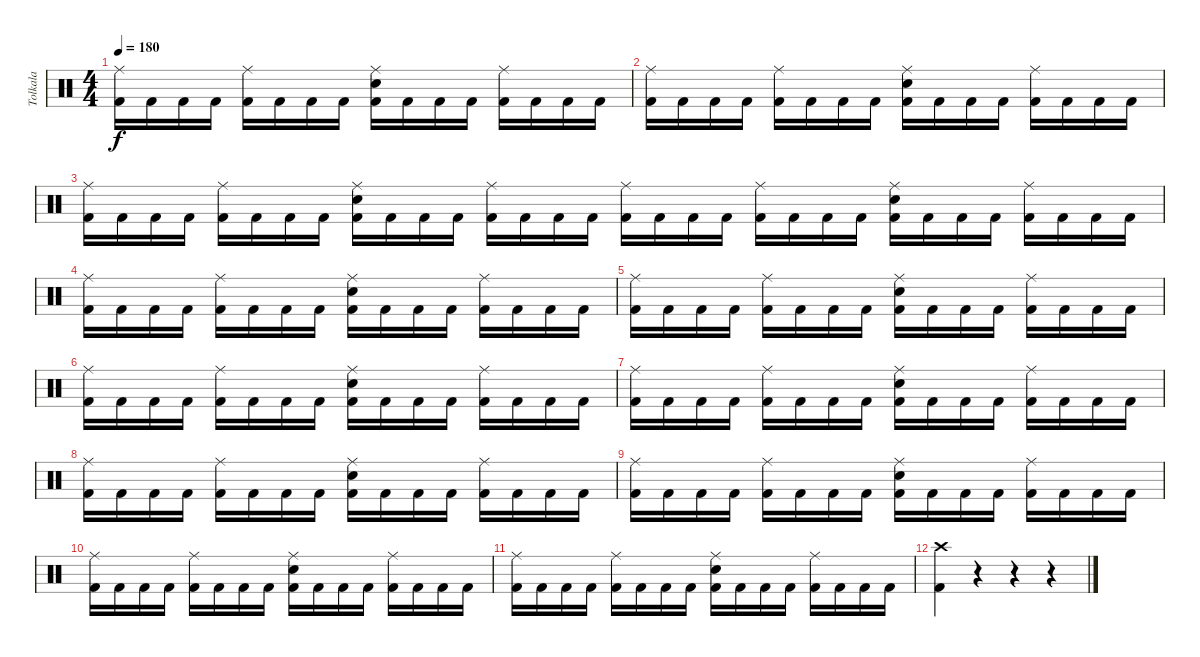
\track ("Tolkala" "Tolkala") {instrument percussion}
\staff {score}
\articulation defaults
\ts (4 4)
\tempo 180
\clef neutral
\ks c
("Ride (middle)" "Kick (hit) 2").16{dy f} "Kick (hit) 2".16 "Kick (hit) 2".16 "Kick (hit) 2".16 ("Ride (middle)" "Kick (hit) 2").16 "Kick (hit) 2".16 "Kick (hit) 2".16 "Kick (hit) 2".16 ("Ride (middle)" "Electric Snare (hit)" "Kick (hit) 2").16 "Kick (hit) 2".16 "Kick (hit) 2".16 "Kick (hit) 2".16 ("Ride (middle)" "Kick (hit) 2").16 "Kick (hit) 2".16 "Kick (hit) 2".16 "Kick (hit) 2".16 |
("Ride (middle)" "Kick (hit) 2").16 "Kick (hit) 2".16 "Kick (hit) 2".16 "Kick (hit) 2".16 ("Ride (middle)" "Kick (hit) 2").16 "Kick (hit) 2".16 "Kick (hit) 2".16 "Kick (hit) 2".16 ("Ride (middle)" "Electric Snare (hit)" "Kick (hit) 2").16 "Kick (hit) 2".16 "Kick (hit) 2".16 "Kick (hit) 2".16 ("Ride (middle)" "Kick (hit) 2").16 "Kick (hit) 2".16 "Kick (hit) 2".16 "Kick (hit) 2".16 |
("Ride (middle)" "Kick (hit) 2").16 "Kick (hit) 2".16 "Kick (hit) 2".16 "Kick (hit) 2".16 ("Ride (middle)" "Kick (hit) 2").16 "Kick (hit) 2".16 "Kick (hit) 2".16 "Kick (hit) 2".16 ("Ride (middle)" "Electric Snare (hit)" "Kick (hit) 2").16 "Kick (hit) 2".16 "Kick (hit) 2".16 "Kick (hit) 2".16 ("Ride (middle)" "Kick (hit) 2").16 "Kick (hit) 2".16 "Kick (hit) 2".16 "Kick (hit) 2".16 ("Ride (middle)" "Kick (hit) 2").16 "Kick (hit) 2".16 "Kick (hit) 2".16 "Kick (hit) 2".16 ("Ride (middle)" "Kick (hit) 2").16 "Kick (hit) 2".16 "Kick (hit) 2".16 "Kick (hit) 2".16 ("Ride (middle)" "Electric Snare (hit)" "Kick (hit) 2").16 "Kick (hit) 2".16 "Kick (hit) 2".16 "Kick (hit) 2".16 ("Ride (middle)" "Kick (hit) 2").16 "Kick (hit) 2".16 "Kick (hit) 2".16 "Kick (hit) 2".16 |
("Ride (middle)" "Kick (hit) 2").16 "Kick (hit) 2".16 "Kick (hit) 2".16 "Kick (hit) 2".16 ("Ride (middle)" "Kick (hit) 2").16 "Kick (hit) 2".16 "Kick (hit) 2".16 "Kick (hit) 2".16 ("Ride (middle)" "Electric Snare (hit)" "Kick (hit) 2").16 "Kick (hit) 2".16 "Kick (hit) 2".16 "Kick (hit) 2".16 ("Ride (middle)" "Kick (hit) 2").16 "Kick (hit) 2".16 "Kick (hit) 2".16 "Kick (hit) 2".16 |
("Ride (middle)" "Kick (hit) 2").16 "Kick (hit) 2".16 "Kick (hit) 2".16 "Kick (hit) 2".16 ("Ride (middle)" "Kick (hit) 2").16 "Kick (hit) 2".16 "Kick (hit) 2".16 "Kick (hit) 2".16 ("Ride (middle)" "Electric Snare (hit)" "Kick (hit) 2").16 "Kick (hit) 2".16 "Kick (hit) 2".16 "Kick (hit) 2".16 ("Ride (middle)" "Kick (hit) 2").16 "Kick (hit) 2".16 "Kick (hit) 2".16 "Kick (hit) 2".16 |
("Ride (middle)" "Kick (hit) 2").16 "Kick (hit) 2".16 "Kick (hit) 2".16 "Kick (hit) 2".16 ("Ride (middle)" "Kick (hit) 2").16 "Kick (hit) 2".16 "Kick (hit) 2".16 "Kick (hit) 2".16 ("Ride (middle)" "Electric Snare (hit)" "Kick (hit) 2").16 "Kick (hit) 2".16 "Kick (hit) 2".16 "Kick (hit) 2".16 ("Ride (middle)" "Kick (hit) 2").16 "Kick (hit) 2".16 "Kick (hit) 2".16 "Kick (hit) 2".16 |
("Ride (middle)" "Kick (hit) 2").16 "Kick (hit) 2".16 "Kick (hit) 2".16 "Kick (hit) 2".16 ("Ride (middle)" "Kick (hit) 2").16 "Kick (hit) 2".16 "Kick (hit) 2".16 "Kick (hit) 2".16 ("Ride (middle)" "Electric Snare (hit)" "Kick (hit) 2").16 "Kick (hit) 2".16 "Kick (hit) 2".16 "Kick (hit) 2".16 ("Ride (middle)" "Kick (hit) 2").16 "Kick (hit) 2".16 "Kick (hit) 2".16 "Kick (hit) 2".16 |
("Ride (middle)" "Kick (hit) 2").16 "Kick (hit) 2".16 "Kick (hit) 2".16 "Kick (hit) 2".16 ("Ride (middle)" "Kick (hit) 2").16 "Kick (hit) 2".16 "Kick (hit) 2".16 "Kick (hit) 2".16 ("Ride (middle)" "Electric Snare (hit)" "Kick (hit) 2").16 "Kick (hit) 2".16 "Kick (hit) 2".16 "Kick (hit) 2".16 ("Ride (middle)" "Kick (hit) 2").16 "Kick (hit) 2".16 "Kick (hit) 2".16 "Kick (hit) 2".16 |
("Ride (middle)" "Kick (hit) 2").16 "Kick (hit) 2".16 "Kick (hit) 2".16 "Kick (hit) 2".16 ("Ride (middle)" "Kick (hit) 2").16 "Kick (hit) 2".16 "Kick (hit) 2".16 "Kick (hit) 2".16 ("Ride (middle)" "Electric Snare (hit)" "Kick (hit) 2").16 "Kick (hit) 2".16 "Kick (hit) 2".16 "Kick (hit) 2".16 ("Ride (middle)" "Kick (hit) 2").16 "Kick (hit) 2".16 "Kick (hit) 2".16 "Kick (hit) 2".16 |
("Ride (middle)" "Kick (hit) 2").16 "Kick (hit) 2".16 "Kick (hit) 2".16 "Kick (hit) 2".16 ("Ride (middle)" "Kick (hit) 2").16 "Kick (hit) 2".16 "Kick (hit) 2".16 "Kick (hit) 2".16 ("Ride (middle)" "Electric Snare (hit)" "Kick (hit) 2").16 "Kick (hit) 2".16 "Kick (hit) 2".16 "Kick (hit) 2".16 ("Ride (middle)" "Kick (hit) 2").16 "Kick (hit) 2".16 "Kick (hit) 2".16 "Kick (hit) 2".16 |
("Ride (middle)" "Kick (hit) 2").16 "Kick (hit) 2".16 "Kick (hit) 2".16 "Kick (hit) 2".16 ("Ride (middle)" "Kick (hit) 2").16 "Kick (hit) 2".16 "Kick (hit) 2".16 "Kick (hit) 2".16 ("Ride (middle)" "Electric Snare (hit)" "Kick (hit) 2").16 "Kick (hit) 2".16 "Kick (hit) 2".16 "Kick (hit) 2".16 ("Ride (middle)" "Kick (hit) 2").16 "Kick (hit) 2".16 "Kick (hit) 2".16 "Kick (hit) 2".16 |
("Crash high (hit)" "Kick (hit) 2").4 r.4 r.4 r.4
